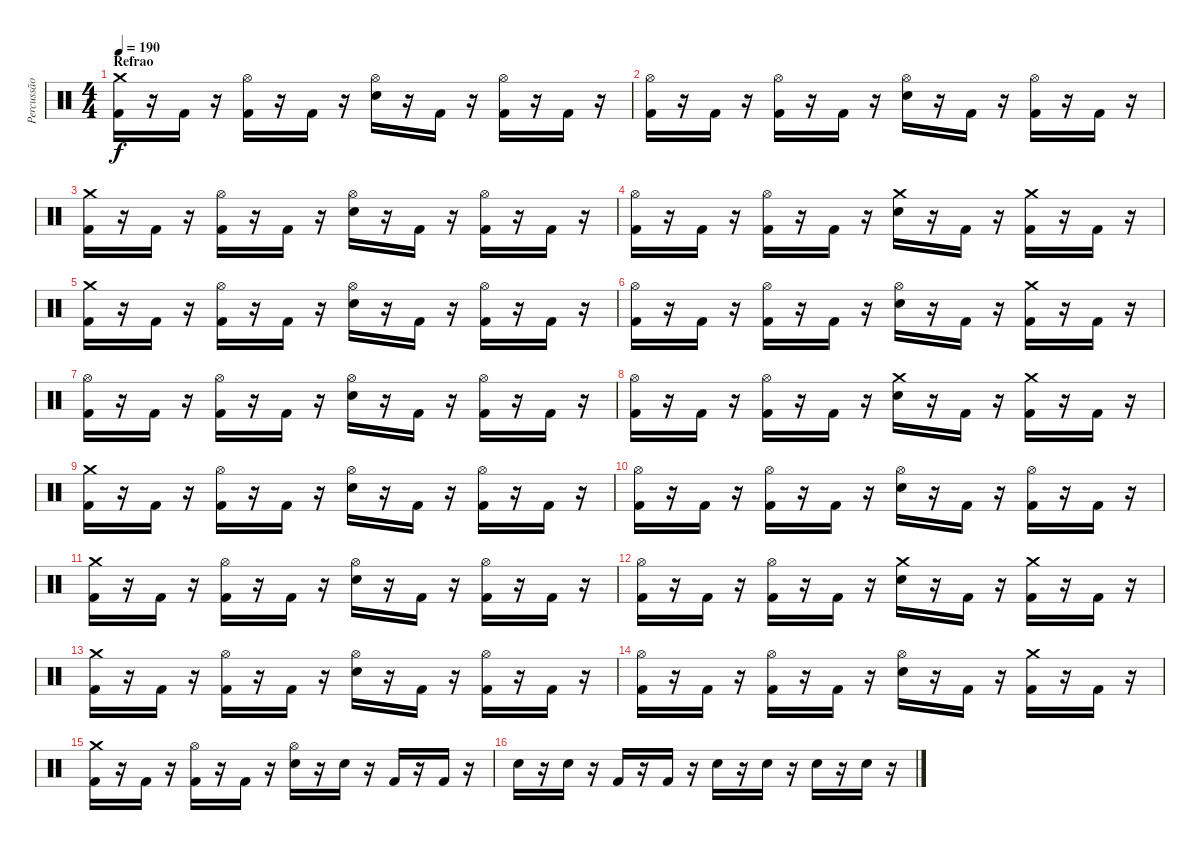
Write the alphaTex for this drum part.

\track ("Percussão" "Percussão") {instrument percussion}
\staff {score}
\articulation defaults
\ts (4 4)
\section ("" "Refrao")
\tempo 190
\clef neutral
\ks c
("Crash medium (hit)" "Kick (hit) 2").16{dy f} r.16 "Kick (hit) 2".16 r.16 ("Hi-Hat (open)" "Kick (hit) 2").16 r.16 "Kick (hit) 2".16 r.16 ("Hi-Hat (open)" "Electric Snare (hit)").16 r.16 "Kick (hit) 2".16 r.16 ("Hi-Hat (open)" "Kick (hit) 2").16 r.16 "Kick (hit) 2".16 r.16 |
("Hi-Hat (open)" "Kick (hit) 2").16 r.16 "Kick (hit) 2".16 r.16 ("Hi-Hat (open)" "Kick (hit) 2").16 r.16 "Kick (hit) 2".16 r.16 ("Hi-Hat (open)" "Electric Snare (hit)").16 r.16 "Kick (hit) 2".16 r.16 ("Hi-Hat (open)" "Kick (hit) 2").16 r.16 "Kick (hit) 2".16 r.16 |
("Crash medium (hit)" "Kick (hit) 2").16 r.16 "Kick (hit) 2".16 r.16 ("Hi-Hat (open)" "Kick (hit) 2").16 r.16 "Kick (hit) 2".16 r.16 ("Hi-Hat (open)" "Electric Snare (hit)").16 r.16 "Kick (hit) 2".16 r.16 ("Hi-Hat (open)" "Kick (hit) 2").16 r.16 "Kick (hit) 2".16 r.16 |
("Hi-Hat (open)" "Kick (hit) 2").16 r.16 "Kick (hit) 2".16 r.16 ("Hi-Hat (open)" "Kick (hit) 2").16 r.16 "Kick (hit) 2".16 r.16 ("Crash medium (hit)" "Electric Snare (hit)").16 r.16 "Kick (hit) 2".16 r.16 ("Crash medium (hit)" "Kick (hit) 2").16 r.16 "Kick (hit) 2".16 r.16 |
("Crash medium (hit)" "Kick (hit) 2").16 r.16 "Kick (hit) 2".16 r.16 ("Hi-Hat (open)" "Kick (hit) 2").16 r.16 "Kick (hit) 2".16 r.16 ("Hi-Hat (open)" "Electric Snare (hit)").16 r.16 "Kick (hit) 2".16 r.16 ("Hi-Hat (open)" "Kick (hit) 2").16 r.16 "Kick (hit) 2".16 r.16 |
("Hi-Hat (open)" "Kick (hit) 2").16 r.16 "Kick (hit) 2".16 r.16 ("Hi-Hat (open)" "Kick (hit) 2").16 r.16 "Kick (hit) 2".16 r.16 ("Hi-Hat (open)" "Electric Snare (hit)").16 r.16 "Kick (hit) 2".16 r.16 ("Crash medium (hit)" "Kick (hit) 2").16 r.16 "Kick (hit) 2".16 r.16 |
("Hi-Hat (open)" "Kick (hit) 2").16 r.16 "Kick (hit) 2".16 r.16 ("Hi-Hat (open)" "Kick (hit) 2").16 r.16 "Kick (hit) 2".16 r.16 ("Hi-Hat (open)" "Electric Snare (hit)").16 r.16 "Kick (hit) 2".16 r.16 ("Hi-Hat (open)" "Kick (hit) 2").16 r.16 "Kick (hit) 2".16 r.16 |
("Hi-Hat (open)" "Kick (hit) 2").16 r.16 "Kick (hit) 2".16 r.16 ("Hi-Hat (open)" "Kick (hit) 2").16 r.16 "Kick (hit) 2".16 r.16 ("Crash medium (hit)" "Electric Snare (hit)").16 r.16 "Kick (hit) 2".16 r.16 ("Crash medium (hit)" "Kick (hit) 2").16 r.16 "Kick (hit) 2".16 r.16 |
("Crash medium (hit)" "Kick (hit) 2").16 r.16 "Kick (hit) 2".16 r.16 ("Hi-Hat (open)" "Kick (hit) 2").16 r.16 "Kick (hit) 2".16 r.16 ("Hi-Hat (open)" "Electric Snare (hit)").16 r.16 "Kick (hit) 2".16 r.16 ("Hi-Hat (open)" "Kick (hit) 2").16 r.16 "Kick (hit) 2".16 r.16 |
("Hi-Hat (open)" "Kick (hit) 2").16 r.16 "Kick (hit) 2".16 r.16 ("Hi-Hat (open)" "Kick (hit) 2").16 r.16 "Kick (hit) 2".16 r.16 ("Hi-Hat (open)" "Electric Snare (hit)").16 r.16 "Kick (hit) 2".16 r.16 ("Hi-Hat (open)" "Kick (hit) 2").16 r.16 "Kick (hit) 2".16 r.16 |
("Crash medium (hit)" "Kick (hit) 2").16 r.16 "Kick (hit) 2".16 r.16 ("Hi-Hat (open)" "Kick (hit) 2").16 r.16 "Kick (hit) 2".16 r.16 ("Hi-Hat (open)" "Electric Snare (hit)").16 r.16 "Kick (hit) 2".16 r.16 ("Hi-Hat (open)" "Kick (hit) 2").16 r.16 "Kick (hit) 2".16 r.16 |
("Hi-Hat (open)" "Kick (hit) 2").16 r.16 "Kick (hit) 2".16 r.16 ("Hi-Hat (open)" "Kick (hit) 2").16 r.16 "Kick (hit) 2".16 r.16 ("Crash medium (hit)" "Electric Snare (hit)").16 r.16 "Kick (hit) 2".16 r.16 ("Crash medium (hit)" "Kick (hit) 2").16 r.16 "Kick (hit) 2".16 r.16 |
("Crash medium (hit)" "Kick (hit) 2").16 r.16 "Kick (hit) 2".16 r.16 ("Hi-Hat (open)" "Kick (hit) 2").16 r.16 "Kick (hit) 2".16 r.16 ("Hi-Hat (open)" "Electric Snare (hit)").16 r.16 "Kick (hit) 2".16 r.16 ("Hi-Hat (open)" "Kick (hit) 2").16 r.16 "Kick (hit) 2".16 r.16 |
("Hi-Hat (open)" "Kick (hit) 2").16 r.16 "Kick (hit) 2".16 r.16 ("Hi-Hat (open)" "Kick (hit) 2").16 r.16 "Kick (hit) 2".16 r.16 ("Hi-Hat (open)" "Electric Snare (hit)").16 r.16 "Kick (hit) 2".16 r.16 ("Crash medium (hit)" "Kick (hit) 2").16 r.16 "Kick (hit) 2".16 r.16 |
("Crash medium (hit)" "Kick (hit) 2").16 r.16 "Kick (hit) 2".16 r.16 ("Hi-Hat (open)" "Kick (hit) 2").16 r.16 "Kick (hit) 2".16 r.16 ("Hi-Hat (open)" "Electric Snare (hit)").16 r.16 "Electric Snare (hit)".16 r.16 "Kick (hit) 2".16 r.16 "Kick (hit) 2".16 r.16 |
"Electric Snare (hit)".16 r.16 "Electric Snare (hit)".16 r.16 "Kick (hit) 2".16 r.16 "Kick (hit) 2".16 r.16 "Electric Snare (hit)".16 r.16 "Electric Snare (hit)".16 r.16 "Electric Snare (hit)".16 r.16 "Electric Snare (hit)".16 r.16
